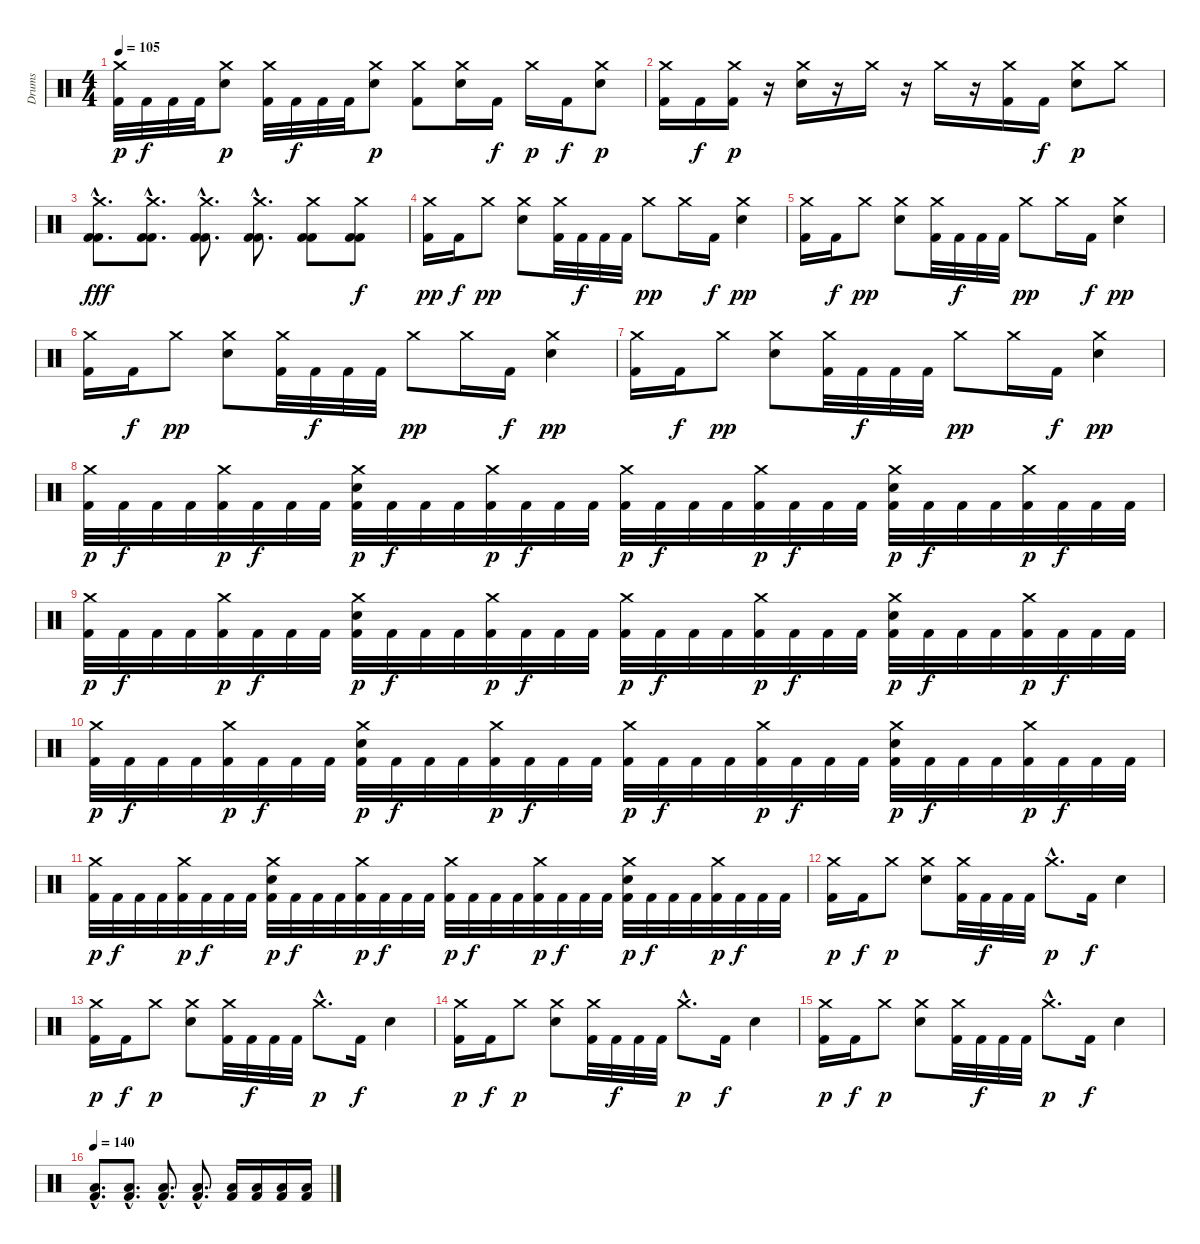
\track ("Drums" "Drums") {instrument percussion}
\staff {score}
\articulation defaults
\ts (4 4)
\tempo 105
\clef neutral
\ks c
("Crash medium (hit)" "Kick (hit) 2").32{dy p} "Kick (hit) 2".32{dy f} "Kick (hit) 2".32 "Kick (hit) 2".32 ("Crash medium (hit)" "Electric Snare (hit)").8{dy p} ("Crash medium (hit)" "Kick (hit) 2").32 "Kick (hit) 2".32{dy f} "Kick (hit) 2".32 "Kick (hit) 2".32 ("Crash medium (hit)" "Electric Snare (hit)").8{dy p} ("Crash medium (hit)" "Kick (hit) 2").8 ("Crash medium (hit)" "Electric Snare (hit)").16 "Kick (hit) 2".16{dy f} "Crash medium (hit)".16{dy p} "Kick (hit) 2".16{dy f} ("Crash medium (hit)" "Electric Snare (hit)").8{dy p} |
("Crash medium (hit)" "Kick (hit) 2").16 "Kick (hit) 2".16{dy f} ("Crash medium (hit)" "Kick (hit) 2").16{dy p} r.16 ("Crash medium (hit)" "Electric Snare (hit)").16 r.16 "Crash medium (hit)".16 r.16 "Crash medium (hit)".16 r.16 ("Crash medium (hit)" "Kick (hit) 2").16 "Kick (hit) 2".16{dy f} ("Crash medium (hit)" "Electric Snare (hit)").8{dy p} "Crash medium (hit)".8 |
("Crash medium (hit)"{hac} "Kick (hit) 2"{hac} "Kick (hit) 2"{hac}).8{d dy fff} ("Crash medium (hit)"{hac} "Kick (hit) 2"{hac} "Kick (hit) 2"{hac}).8{d} ("Crash medium (hit)"{hac} "Kick (hit) 2"{hac} "Kick (hit) 2"{hac}).8{d} ("Crash medium (hit)"{hac} "Kick (hit) 2"{hac} "Kick (hit) 2"{hac}).8{d} ("Crash medium (hit)" "Kick (hit) 2" "Kick (hit) 2").8 ("Crash medium (hit)" "Kick (hit) 2" "Kick (hit) 2").8{dy f} |
("Crash medium (hit)" "Kick (hit) 2").16{dy pp} "Kick (hit) 2".16{dy f} "Crash medium (hit)".8{dy pp} ("Crash medium (hit)" "Electric Snare (hit)").8 ("Crash medium (hit)" "Kick (hit) 2").32 "Kick (hit) 2".32{dy f} "Kick (hit) 2".32 "Kick (hit) 2".32 "Crash medium (hit)".8{dy pp} "Crash medium (hit)".16 "Kick (hit) 2".16{dy f} ("Crash medium (hit)" "Electric Snare (hit)").4{dy pp} |
("Crash medium (hit)" "Kick (hit) 2").16 "Kick (hit) 2".16{dy f} "Crash medium (hit)".8{dy pp} ("Crash medium (hit)" "Electric Snare (hit)").8 ("Crash medium (hit)" "Kick (hit) 2").32 "Kick (hit) 2".32{dy f} "Kick (hit) 2".32 "Kick (hit) 2".32 "Crash medium (hit)".8{dy pp} "Crash medium (hit)".16 "Kick (hit) 2".16{dy f} ("Crash medium (hit)" "Electric Snare (hit)").4{dy pp} |
("Crash medium (hit)" "Kick (hit) 2").16 "Kick (hit) 2".16{dy f} "Crash medium (hit)".8{dy pp} ("Crash medium (hit)" "Electric Snare (hit)").8 ("Crash medium (hit)" "Kick (hit) 2").32 "Kick (hit) 2".32{dy f} "Kick (hit) 2".32 "Kick (hit) 2".32 "Crash medium (hit)".8{dy pp} "Crash medium (hit)".16 "Kick (hit) 2".16{dy f} ("Crash medium (hit)" "Electric Snare (hit)").4{dy pp} |
("Crash medium (hit)" "Kick (hit) 2").16 "Kick (hit) 2".16{dy f} "Crash medium (hit)".8{dy pp} ("Crash medium (hit)" "Electric Snare (hit)").8 ("Crash medium (hit)" "Kick (hit) 2").32 "Kick (hit) 2".32{dy f} "Kick (hit) 2".32 "Kick (hit) 2".32 "Crash medium (hit)".8{dy pp} "Crash medium (hit)".16 "Kick (hit) 2".16{dy f} ("Crash medium (hit)" "Electric Snare (hit)").4{dy pp} |
("Crash medium (hit)" "Kick (hit) 2").32{dy p} "Kick (hit) 2".32{dy f} "Kick (hit) 2".32 "Kick (hit) 2".32 ("Crash medium (hit)" "Kick (hit) 2").32{dy p} "Kick (hit) 2".32{dy f} "Kick (hit) 2".32 "Kick (hit) 2".32 ("Crash medium (hit)" "Electric Snare (hit)" "Kick (hit) 2").32{dy p} "Kick (hit) 2".32{dy f} "Kick (hit) 2".32 "Kick (hit) 2".32 ("Crash medium (hit)" "Kick (hit) 2").32{dy p} "Kick (hit) 2".32{dy f} "Kick (hit) 2".32 "Kick (hit) 2".32 ("Crash medium (hit)" "Kick (hit) 2").32{dy p} "Kick (hit) 2".32{dy f} "Kick (hit) 2".32 "Kick (hit) 2".32 ("Crash medium (hit)" "Kick (hit) 2").32{dy p} "Kick (hit) 2".32{dy f} "Kick (hit) 2".32 "Kick (hit) 2".32 ("Crash medium (hit)" "Electric Snare (hit)" "Kick (hit) 2").32{dy p} "Kick (hit) 2".32{dy f} "Kick (hit) 2".32 "Kick (hit) 2".32 ("Crash medium (hit)" "Kick (hit) 2").32{dy p} "Kick (hit) 2".32{dy f} "Kick (hit) 2".32 "Kick (hit) 2".32 |
("Crash medium (hit)" "Kick (hit) 2").32{dy p} "Kick (hit) 2".32{dy f} "Kick (hit) 2".32 "Kick (hit) 2".32 ("Crash medium (hit)" "Kick (hit) 2").32{dy p} "Kick (hit) 2".32{dy f} "Kick (hit) 2".32 "Kick (hit) 2".32 ("Crash medium (hit)" "Electric Snare (hit)" "Kick (hit) 2").32{dy p} "Kick (hit) 2".32{dy f} "Kick (hit) 2".32 "Kick (hit) 2".32 ("Crash medium (hit)" "Kick (hit) 2").32{dy p} "Kick (hit) 2".32{dy f} "Kick (hit) 2".32 "Kick (hit) 2".32 ("Crash medium (hit)" "Kick (hit) 2").32{dy p} "Kick (hit) 2".32{dy f} "Kick (hit) 2".32 "Kick (hit) 2".32 ("Crash medium (hit)" "Kick (hit) 2").32{dy p} "Kick (hit) 2".32{dy f} "Kick (hit) 2".32 "Kick (hit) 2".32 ("Crash medium (hit)" "Electric Snare (hit)" "Kick (hit) 2").32{dy p} "Kick (hit) 2".32{dy f} "Kick (hit) 2".32 "Kick (hit) 2".32 ("Crash medium (hit)" "Kick (hit) 2").32{dy p} "Kick (hit) 2".32{dy f} "Kick (hit) 2".32 "Kick (hit) 2".32 |
("Crash medium (hit)" "Kick (hit) 2").32{dy p} "Kick (hit) 2".32{dy f} "Kick (hit) 2".32 "Kick (hit) 2".32 ("Crash medium (hit)" "Kick (hit) 2").32{dy p} "Kick (hit) 2".32{dy f} "Kick (hit) 2".32 "Kick (hit) 2".32 ("Crash medium (hit)" "Electric Snare (hit)" "Kick (hit) 2").32{dy p} "Kick (hit) 2".32{dy f} "Kick (hit) 2".32 "Kick (hit) 2".32 ("Crash medium (hit)" "Kick (hit) 2").32{dy p} "Kick (hit) 2".32{dy f} "Kick (hit) 2".32 "Kick (hit) 2".32 ("Crash medium (hit)" "Kick (hit) 2").32{dy p} "Kick (hit) 2".32{dy f} "Kick (hit) 2".32 "Kick (hit) 2".32 ("Crash medium (hit)" "Kick (hit) 2").32{dy p} "Kick (hit) 2".32{dy f} "Kick (hit) 2".32 "Kick (hit) 2".32 ("Crash medium (hit)" "Electric Snare (hit)" "Kick (hit) 2").32{dy p} "Kick (hit) 2".32{dy f} "Kick (hit) 2".32 "Kick (hit) 2".32 ("Crash medium (hit)" "Kick (hit) 2").32{dy p} "Kick (hit) 2".32{dy f} "Kick (hit) 2".32 "Kick (hit) 2".32 |
("Crash medium (hit)" "Kick (hit) 2").32{dy p} "Kick (hit) 2".32{dy f} "Kick (hit) 2".32 "Kick (hit) 2".32 ("Crash medium (hit)" "Kick (hit) 2").32{dy p} "Kick (hit) 2".32{dy f} "Kick (hit) 2".32 "Kick (hit) 2".32 ("Crash medium (hit)" "Electric Snare (hit)" "Kick (hit) 2").32{dy p} "Kick (hit) 2".32{dy f} "Kick (hit) 2".32 "Kick (hit) 2".32 ("Crash medium (hit)" "Kick (hit) 2").32{dy p} "Kick (hit) 2".32{dy f} "Kick (hit) 2".32 "Kick (hit) 2".32 ("Crash medium (hit)" "Kick (hit) 2").32{dy p} "Kick (hit) 2".32{dy f} "Kick (hit) 2".32 "Kick (hit) 2".32 ("Crash medium (hit)" "Kick (hit) 2").32{dy p} "Kick (hit) 2".32{dy f} "Kick (hit) 2".32 "Kick (hit) 2".32 ("Crash medium (hit)" "Electric Snare (hit)" "Kick (hit) 2").32{dy p} "Kick (hit) 2".32{dy f} "Kick (hit) 2".32 "Kick (hit) 2".32 ("Crash medium (hit)" "Kick (hit) 2").32{dy p} "Kick (hit) 2".32{dy f} "Kick (hit) 2".32 "Kick (hit) 2".32 |
("Crash medium (hit)" "Kick (hit) 2").16{dy p} "Kick (hit) 2".16{dy f} "Crash medium (hit)".8{dy p} ("Crash medium (hit)" "Electric Snare (hit)").8 ("Crash medium (hit)" "Kick (hit) 2").32 "Kick (hit) 2".32{dy f} "Kick (hit) 2".32 "Kick (hit) 2".32 "Crash medium (hit)"{hac}.8{d dy p} "Kick (hit) 2".16{dy f} "Electric Snare (hit)".4 |
("Crash medium (hit)" "Kick (hit) 2").16{dy p} "Kick (hit) 2".16{dy f} "Crash medium (hit)".8{dy p} ("Crash medium (hit)" "Electric Snare (hit)").8 ("Crash medium (hit)" "Kick (hit) 2").32 "Kick (hit) 2".32{dy f} "Kick (hit) 2".32 "Kick (hit) 2".32 "Crash medium (hit)"{hac}.8{d dy p} "Kick (hit) 2".16{dy f} "Electric Snare (hit)".4 |
("Crash medium (hit)" "Kick (hit) 2").16{dy p} "Kick (hit) 2".16{dy f} "Crash medium (hit)".8{dy p} ("Crash medium (hit)" "Electric Snare (hit)").8 ("Crash medium (hit)" "Kick (hit) 2").32 "Kick (hit) 2".32{dy f} "Kick (hit) 2".32 "Kick (hit) 2".32 "Crash medium (hit)"{hac}.8{d dy p} "Kick (hit) 2".16{dy f} "Electric Snare (hit)".4 |
("Crash medium (hit)" "Kick (hit) 2").16{dy p} "Kick (hit) 2".16{dy f} "Crash medium (hit)".8{dy p} ("Crash medium (hit)" "Electric Snare (hit)").8 ("Crash medium (hit)" "Kick (hit) 2").32 "Kick (hit) 2".32{dy f} "Kick (hit) 2".32 "Kick (hit) 2".32 "Crash medium (hit)"{hac}.8{d dy p} "Kick (hit) 2".16{dy f} "Electric Snare (hit)".4 |
\tempo 140
("Low Tom (hit)"{hac} "Kick (hit) 2"{hac}).8{d} ("Low Tom (hit)"{hac} "Kick (hit) 2"{hac}).8{d} ("Low Tom (hit)"{hac} "Kick (hit) 2"{hac}).8{d} ("Low Tom (hit)"{hac} "Kick (hit) 2"{hac}).8{d} ("Low Tom (hit)" "Kick (hit) 2").16 ("Low Tom (hit)" "Kick (hit) 2").16 ("Low Tom (hit)" "Kick (hit) 2").16 ("Low Tom (hit)" "Kick (hit) 2").16
